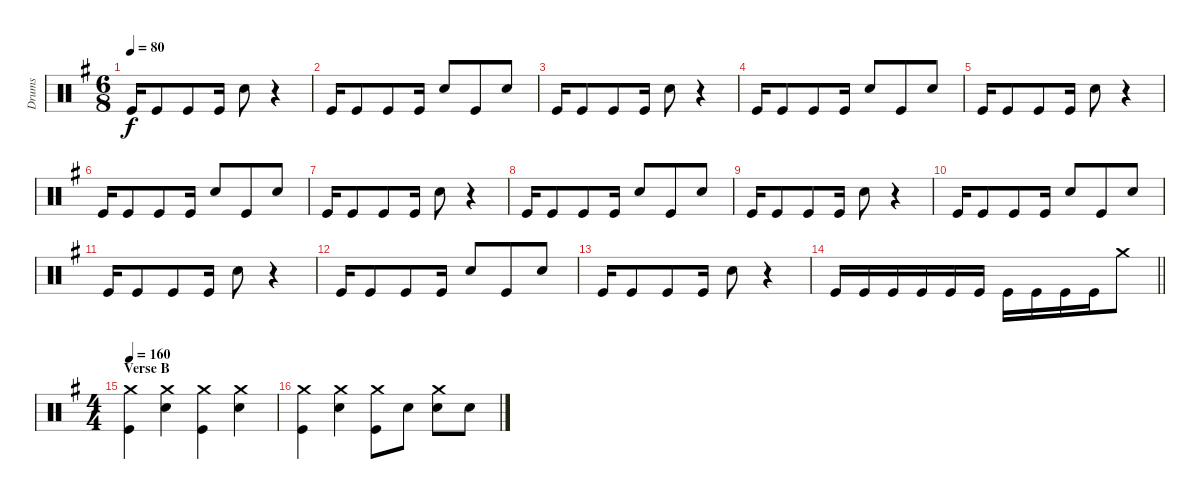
\track ("Drums" "Drums") {instrument percussion}
\staff {score}
\articulation defaults
\ts (6 8)
\tempo 80
\clef neutral
\ks eminor "Kick (hit)".16{dy f} "Kick (hit)".8 "Kick (hit)".8 "Kick (hit)".16 "Snare (hit) 2".8
r.4 |
"Kick (hit)".16 "Kick (hit)".8 "Kick (hit)".8 "Kick (hit)".16 "Snare (hit) 2".8 "Kick (hit)".8 "Snare (hit) 2".8 |
"Kick (hit)".16 "Kick (hit)".8 "Kick (hit)".8 "Kick (hit)".16 "Snare (hit) 2".8 r.4 |
"Kick (hit)".16 "Kick (hit)".8 "Kick (hit)".8 "Kick (hit)".16 "Snare (hit) 2".8 "Kick (hit)".8 "Snare (hit) 2".8 |
"Kick (hit)".16 "Kick (hit)".8 "Kick (hit)".8 "Kick (hit)".16 "Snare (hit) 2".8 r.4 |
"Kick (hit)".16 "Kick (hit)".8 "Kick (hit)".8 "Kick (hit)".16 "Snare (hit) 2".8 "Kick (hit)".8 "Snare (hit) 2".8 |
"Kick (hit)".16 "Kick (hit)".8 "Kick (hit)".8 "Kick (hit)".16 "Snare (hit) 2".8 r.4 |
"Kick (hit)".16 "Kick (hit)".8 "Kick (hit)".8 "Kick (hit)".16 "Snare (hit) 2".8 "Kick (hit)".8 "Snare (hit) 2".8 |
"Kick (hit)".16 "Kick (hit)".8 "Kick (hit)".8 "Kick (hit)".16 "Snare (hit) 2".8 r.4 |
"Kick (hit)".16 "Kick (hit)".8 "Kick (hit)".8 "Kick (hit)".16 "Snare (hit) 2".8 "Kick (hit)".8 "Snare (hit) 2".8 |
"Kick (hit)".16 "Kick (hit)".8 "Kick (hit)".8 "Kick (hit)".16 "Snare (hit) 2".8 r.4 |
"Kick (hit)".16 "Kick (hit)".8 "Kick (hit)".8 "Kick (hit)".16 "Snare (hit) 2".8 "Kick (hit)".8 "Snare (hit) 2".8 |
"Kick (hit)".16 "Kick (hit)".8 "Kick (hit)".8 "Kick (hit)".16 "Snare (hit) 2".8 r.4 |
\barLineRight lightlight "Kick (hit)".16 "Kick (hit)".16 "Kick (hit)".16 "Kick (hit)".16 "Kick (hit)".16 "Kick (hit)".16 "Kick (hit)".16 "Kick (hit)".16 "Kick (hit)".16 "Kick (hit)".16 "Crash medium (hit)".8
|
\ts (4 4)
\section ("" "Verse B")
\tempo 160
("Crash medium (hit)" "Kick (hit)").4 ("Crash medium (hit)" "Snare (hit) 2").4 ("Crash medium (hit)" "Kick (hit)").4 ("Crash medium (hit)" "Snare (hit) 2").4 |
("Crash medium (hit)" "Kick (hit)").4 ("Crash medium (hit)" "Snare (hit) 2").4 ("Crash medium (hit)" "Kick (hit)").8 "Snare (hit) 2".8 ("Crash medium (hit)" "Snare (hit) 2").8 "Snare (hit) 2".8
